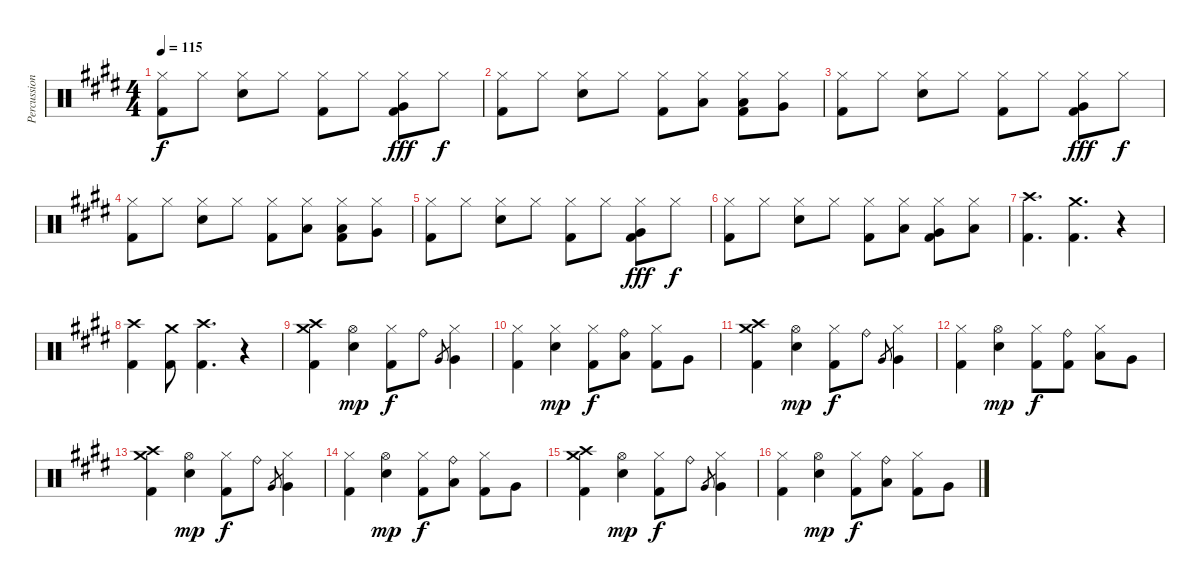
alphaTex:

\track ("Percussion" "Percussion") {instrument percussion}
\staff {score}
\articulation defaults
\ts (4 4)
\tempo 115
\clef neutral
\ks c#minor
("Hi-Hat (closed)" "Kick (hit) 2").8{dy f} "Hi-Hat (closed)".8 ("Hi-Hat (closed)" "Electric Snare (hit)").8 "Hi-Hat (closed)".8 ("Hi-Hat (closed)" "Kick (hit) 2").8 "Hi-Hat (closed)".8 ("Hi-Hat (closed)" "Very Low Tom (hit)" "Kick (hit) 2").8{dy fff} "Hi-Hat (closed)".8{dy f} |
("Hi-Hat (closed)" "Kick (hit) 2").8 "Hi-Hat (closed)".8 ("Hi-Hat (closed)" "Electric Snare (hit)").8 "Hi-Hat (closed)".8 ("Hi-Hat (closed)" "Kick (hit) 2").8 ("Hi-Hat (closed)" "Low Tom (hit)").8 ("Hi-Hat (closed)" "Low Floor Tom (hit)" "Kick (hit) 2").8 ("Hi-Hat (closed)" "Very Low Tom (hit)").8 |
("Hi-Hat (closed)" "Kick (hit) 2").8 "Hi-Hat (closed)".8 ("Hi-Hat (closed)" "Electric Snare (hit)").8 "Hi-Hat (closed)".8 ("Hi-Hat (closed)" "Kick (hit) 2").8 "Hi-Hat (closed)".8 ("Hi-Hat (closed)" "Very Low Tom (hit)" "Kick (hit) 2").8{dy fff} "Hi-Hat (closed)".8{dy f} |
("Hi-Hat (closed)" "Kick (hit) 2").8 "Hi-Hat (closed)".8 ("Hi-Hat (closed)" "Electric Snare (hit)").8 "Hi-Hat (closed)".8 ("Hi-Hat (closed)" "Kick (hit) 2").8 ("Hi-Hat (closed)" "Low Tom (hit)").8 ("Hi-Hat (closed)" "Low Floor Tom (hit)" "Kick (hit) 2").8 ("Hi-Hat (closed)" "Very Low Tom (hit)").8 |
("Hi-Hat (closed)" "Kick (hit) 2").8 "Hi-Hat (closed)".8 ("Hi-Hat (closed)" "Electric Snare (hit)").8 "Hi-Hat (closed)".8 ("Hi-Hat (closed)" "Kick (hit) 2").8 "Hi-Hat (closed)".8 ("Hi-Hat (closed)" "Very Low Tom (hit)" "Kick (hit) 2").8{dy fff} "Hi-Hat (closed)".8{dy f} |
("Hi-Hat (closed)" "Kick (hit) 2").8 "Hi-Hat (closed)".8 ("Hi-Hat (closed)" "Electric Snare (hit)").8 "Hi-Hat (closed)".8 ("Hi-Hat (closed)" "Kick (hit) 2").8 ("Hi-Hat (closed)" "Low Tom (hit)").8 ("Hi-Hat (closed)" "Very Low Tom (hit)" "Kick (hit) 2").8 ("Hi-Hat (closed)" "Low Floor Tom (hit)").8 |
("Crash high (hit)" "Kick (hit) 2").4{d} ("Crash medium (hit)" "Kick (hit) 2").4{d} r.4 |
("Crash high (hit)" "Kick (hit) 2").4 ("Crash medium (hit)" "Kick (hit) 2").8 ("Crash high (hit)" "Kick (hit) 2").4{d} r.4 |
("Crash high (hit)" "Crash medium (hit)" "Kick (hit) 2").4 ("Hi-Hat (open)" "Electric Snare (hit)").4{dy mp} ("Hi-Hat (closed)" "Kick (hit) 2").8{dy f} "Ride (bell)".8 "Very Low Tom (hit)".8{gr} ("Hi-Hat (closed)" "Very Low Tom (hit)").4 |
("Hi-Hat (closed)" "Kick (hit) 2").4 ("Hi-Hat (closed)" "Electric Snare (hit)").4{dy mp} ("Hi-Hat (closed)" "Kick (hit) 2").8{dy f} ("Ride (bell)" "Low Tom (hit)").8 ("Hi-Hat (closed)" "Kick (hit) 2").8 "Very Low Tom (hit)".8 |
("Crash high (hit)" "Crash medium (hit)" "Kick (hit) 2").4 ("Hi-Hat (open)" "Electric Snare (hit)").4{dy mp} ("Hi-Hat (closed)" "Kick (hit) 2").8{dy f} "Ride (bell)".8 "Very Low Tom (hit)".8{gr} ("Hi-Hat (closed)" "Very Low Tom (hit)").4 |
("Hi-Hat (closed)" "Kick (hit) 2").4 ("Hi-Hat (open)" "Electric Snare (hit)").4{dy mp} ("Hi-Hat (closed)" "Kick (hit) 2").8{dy f} ("Ride (bell)" "Kick (hit) 2").8 ("Hi-Hat (closed)" "Low Tom (hit)").8 "Very Low Tom (hit)".8 |
("Crash high (hit)" "Crash medium (hit)" "Kick (hit) 2").4 ("Hi-Hat (open)" "Electric Snare (hit)").4{dy mp} ("Hi-Hat (closed)" "Kick (hit) 2").8{dy f} "Ride (bell)".8 "Very Low Tom (hit)".8{gr} ("Hi-Hat (closed)" "Very Low Tom (hit)").4 |
("Hi-Hat (closed)" "Kick (hit) 2").4 ("Hi-Hat (open)" "Electric Snare (hit)").4{dy mp} ("Hi-Hat (closed)" "Kick (hit) 2").8{dy f} ("Ride (bell)" "Low Tom (hit)").8 ("Hi-Hat (closed)" "Kick (hit) 2").8 "Very Low Tom (hit)".8 |
("Crash high (hit)" "Crash medium (hit)" "Kick (hit) 2").4 ("Hi-Hat (open)" "Electric Snare (hit)").4{dy mp} ("Hi-Hat (closed)" "Kick (hit) 2").8{dy f} "Ride (bell)".8 "Very Low Tom (hit)".8{gr} ("Hi-Hat (closed)" "Very Low Tom (hit)").4 |
("Hi-Hat (closed)" "Kick (hit) 2").4 ("Hi-Hat (open)" "Electric Snare (hit)").4{dy mp} ("Hi-Hat (closed)" "Kick (hit) 2").8{dy f} ("Ride (bell)" "Low Tom (hit)").8 ("Hi-Hat (closed)" "Kick (hit) 2").8 "Very Low Tom (hit)".8
